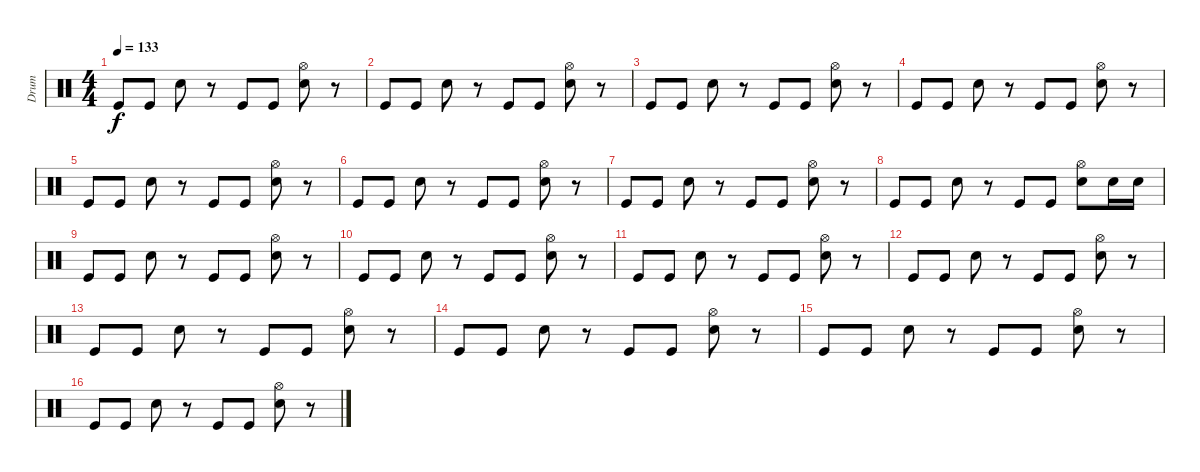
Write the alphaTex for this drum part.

\track ("Drum" "Drum") {instrument percussion}
\staff {score}
\articulation defaults
\ts (4 4)
\tempo 133
\clef neutral
\ks c "Kick (hit)".8{dy f} "Kick (hit)".8 "Snare (hit) 2".8
r.8 "Kick (hit)".8 "Kick (hit)".8 ("Hi-Hat (open)" "Snare (hit) 2").8 r.8 |
"Kick (hit)".8 "Kick (hit)".8 "Snare (hit) 2".8 r.8 "Kick (hit)".8 "Kick (hit)".8 ("Hi-Hat (open)" "Snare (hit) 2").8 r.8 |
"Kick (hit)".8 "Kick (hit)".8 "Snare (hit) 2".8 r.8 "Kick (hit)".8 "Kick (hit)".8 ("Hi-Hat (open)" "Snare (hit) 2").8 r.8 |
"Kick (hit)".8 "Kick (hit)".8 "Snare (hit) 2".8 r.8 "Kick (hit)".8 "Kick (hit)".8 ("Hi-Hat (open)" "Snare (hit) 2").8 r.8 |
"Kick (hit)".8 "Kick (hit)".8 "Snare (hit) 2".8 r.8 "Kick (hit)".8 "Kick (hit)".8 ("Hi-Hat (open)" "Snare (hit) 2").8 r.8 |
"Kick (hit)".8 "Kick (hit)".8 "Snare (hit) 2".8 r.8 "Kick (hit)".8 "Kick (hit)".8 ("Hi-Hat (open)" "Snare (hit) 2").8 r.8 |
"Kick (hit)".8 "Kick (hit)".8 "Snare (hit) 2".8 r.8 "Kick (hit)".8 "Kick (hit)".8 ("Hi-Hat (open)" "Snare (hit) 2").8 r.8 |
"Kick (hit)".8 "Kick (hit)".8 "Snare (hit) 2".8 r.8 "Kick (hit)".8 "Kick (hit)".8 ("Hi-Hat (open)" "Snare (hit) 2").8 "Snare (hit) 2".16 "Snare (hit) 2".16 |
"Kick (hit)".8 "Kick (hit)".8 "Snare (hit) 2".8 r.8 "Kick (hit)".8 "Kick (hit)".8 ("Hi-Hat (open)" "Snare (hit) 2").8 r.8 |
"Kick (hit)".8 "Kick (hit)".8 "Snare (hit) 2".8 r.8 "Kick (hit)".8 "Kick (hit)".8 ("Hi-Hat (open)" "Snare (hit) 2").8 r.8 |
"Kick (hit)".8 "Kick (hit)".8 "Snare (hit) 2".8 r.8 "Kick (hit)".8 "Kick (hit)".8 ("Hi-Hat (open)" "Snare (hit) 2").8 r.8 |
"Kick (hit)".8 "Kick (hit)".8 "Snare (hit) 2".8 r.8 "Kick (hit)".8 "Kick (hit)".8 ("Hi-Hat (open)" "Snare (hit) 2").8 r.8 |
"Kick (hit)".8 "Kick (hit)".8 "Snare (hit) 2".8 r.8 "Kick (hit)".8 "Kick (hit)".8 ("Hi-Hat (open)" "Snare (hit) 2").8 r.8 |
"Kick (hit)".8 "Kick (hit)".8 "Snare (hit) 2".8 r.8 "Kick (hit)".8 "Kick (hit)".8 ("Hi-Hat (open)" "Snare (hit) 2").8 r.8 |
"Kick (hit)".8 "Kick (hit)".8 "Snare (hit) 2".8 r.8 "Kick (hit)".8 "Kick (hit)".8 ("Hi-Hat (open)" "Snare (hit) 2").8 r.8 |
"Kick (hit)".8 "Kick (hit)".8 "Snare (hit) 2".8 r.8 "Kick (hit)".8 "Kick (hit)".8 ("Hi-Hat (open)" "Snare (hit) 2").8 r.8
